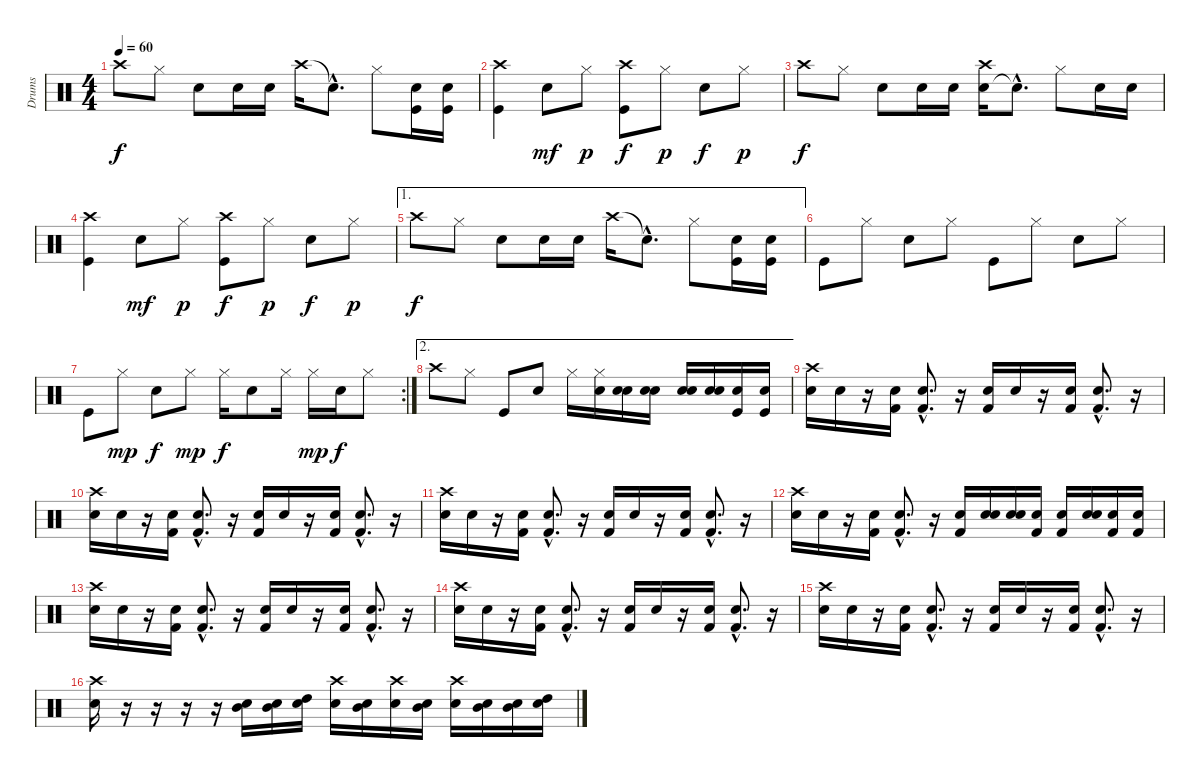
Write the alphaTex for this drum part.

\track ("Drums" "Drums") {instrument percussion}
\staff {score}
\articulation defaults
\ts (4 4)
\tempo 60
\clef neutral
\ks c "Crash high (hit)".8{dy f} "Hi-Hat (closed)".8 "Snare (hit) 2".8 "Snare (hit) 2".16 "Snare (hit) 2".16 "Crash high (hit)".16 "Snare (hit) 2"{hac t}.8{d} "Hi-Hat (closed)".8
("Kick (hit)" "Snare (hit) 2").16 ("Kick (hit)" "Snare (hit) 2").16 |
("Crash high (hit)" "Kick (hit)").4 "Snare (hit) 2".8{dy mf} "Hi-Hat (closed)".8{dy p} ("Crash high (hit)" "Kick (hit)").8{dy f} "Hi-Hat (closed)".8{dy p} "Snare (hit) 2".8{dy f} "Hi-Hat (closed)".8{dy p} |
"Crash high (hit)".8{dy f} "Hi-Hat (closed)".8 "Snare (hit) 2".8 "Snare (hit) 2".16 "Snare (hit) 2".16 ("Snare (hit) 2" "Crash high (hit)").16 "Snare (hit) 2"{hac t}.8{d} "Hi-Hat (closed)".8 "Snare (hit) 2".16 "Snare (hit) 2".16 |
("Crash high (hit)" "Kick (hit)").4 "Snare (hit) 2".8{dy mf} "Hi-Hat (closed)".8{dy p} ("Crash high (hit)" "Kick (hit)").8{dy f} "Hi-Hat (closed)".8{dy p} "Snare (hit) 2".8{dy f} "Hi-Hat (closed)".8{dy p} |
\ae 1 "Crash high (hit)".8{dy f} "Hi-Hat (closed)".8 "Snare (hit) 2".8 "Snare (hit) 2".16 "Snare (hit) 2".16 "Crash high (hit)".16 "Snare (hit) 2"{hac t}.8{d} "Hi-Hat (closed)".8
("Kick (hit)" "Snare (hit) 2").16 ("Kick (hit)" "Snare (hit) 2").16 |
"Kick (hit)".8 "Hi-Hat (closed)".8 "Snare (hit) 2".8 "Hi-Hat (closed)".8 "Kick (hit)".8 "Hi-Hat (closed)".8 "Snare (hit) 2".8 "Hi-Hat (closed)".8 |
\rc 2 "Kick (hit)".8 "Hi-Hat (closed)".8{dy mp} "Snare (hit) 2".8{dy f} "Hi-Hat (closed)".8{dy mp} "Hi-Hat (closed)".16{dy f} "Snare (hit) 2".8 "Hi-Hat (closed)".16 "Hi-Hat (closed)".16{dy mp} "Snare (hit) 2".16{dy f} "Hi-Hat (closed)".8
|
\ae 2 "Crash high (hit)".8 "Hi-Hat (closed)".8 "Kick (hit)".8 "Snare (hit) 2".8 "Hi-Hat (closed)".16
("Hi-Hat (closed)" "Snare (hit) 2").16 ("Snare (hit) 2" "Snare (hit) 2").16 ("Snare (hit) 2" "Snare (hit) 2").16 ("Snare (hit) 2" "Snare (hit) 2").16 ("Snare (hit) 2" "Snare (hit) 2").16 ("Kick (hit)" "Snare (hit) 2").16 ("Kick (hit)" "Snare (hit) 2").16 |
("Snare (hit) 2" "Crash high (hit)").16 "Snare (hit) 2".16 r.16 ("Snare (hit) 2" "Kick (hit) 2").16 ("Snare (hit) 2"{hac} "Kick (hit) 2"{hac}).8{d} r.16 ("Snare (hit) 2" "Kick (hit) 2").16 "Snare (hit) 2".16 r.16 ("Snare (hit) 2" "Kick (hit) 2").16 ("Snare (hit) 2"{hac} "Kick (hit) 2"{hac}).8{d} r.16 |
("Snare (hit) 2" "Crash high (hit)").16 "Snare (hit) 2".16 r.16 ("Snare (hit) 2" "Kick (hit) 2").16 ("Snare (hit) 2"{hac} "Kick (hit) 2"{hac}).8{d} r.16 ("Snare (hit) 2" "Kick (hit) 2").16 "Snare (hit) 2".16 r.16 ("Snare (hit) 2" "Kick (hit) 2").16 ("Snare (hit) 2"{hac} "Kick (hit) 2"{hac}).8{d} r.16 |
("Snare (hit) 2" "Crash high (hit)").16 "Snare (hit) 2".16 r.16 ("Snare (hit) 2" "Kick (hit) 2").16 ("Snare (hit) 2"{hac} "Kick (hit) 2"{hac}).8{d} r.16 ("Snare (hit) 2" "Kick (hit) 2").16 "Snare (hit) 2".16 r.16 ("Snare (hit) 2" "Kick (hit) 2").16 ("Snare (hit) 2"{hac} "Kick (hit) 2"{hac}).8{d} r.16 |
("Snare (hit) 2" "Crash high (hit)").16 "Snare (hit) 2".16 r.16 ("Snare (hit) 2" "Kick (hit) 2").16 ("Snare (hit) 2"{hac} "Kick (hit) 2"{hac}).8{d} r.16 ("Snare (hit) 2" "Kick (hit) 2").16 ("Snare (hit) 2" "Snare (hit) 2").16 ("Snare (hit) 2" "Snare (hit) 2").16 ("Snare (hit) 2" "Kick (hit) 2").16 ("Snare (hit) 2" "Kick (hit) 2").16 ("Snare (hit) 2" "Snare (hit) 2").16 ("Snare (hit) 2" "Kick (hit) 2").16 ("Snare (hit) 2" "Kick (hit) 2").16 |
("Snare (hit) 2" "Crash high (hit)").16 "Snare (hit) 2".16 r.16 ("Snare (hit) 2" "Kick (hit) 2").16 ("Snare (hit) 2"{hac} "Kick (hit) 2"{hac}).8{d} r.16 ("Snare (hit) 2" "Kick (hit) 2").16 "Snare (hit) 2".16 r.16 ("Snare (hit) 2" "Kick (hit) 2").16 ("Snare (hit) 2"{hac} "Kick (hit) 2"{hac}).8{d} r.16 |
("Snare (hit) 2" "Crash high (hit)").16 "Snare (hit) 2".16 r.16 ("Snare (hit) 2" "Kick (hit) 2").16 ("Snare (hit) 2"{hac} "Kick (hit) 2"{hac}).8{d} r.16 ("Snare (hit) 2" "Kick (hit) 2").16 "Snare (hit) 2".16 r.16 ("Snare (hit) 2" "Kick (hit) 2").16 ("Snare (hit) 2"{hac} "Kick (hit) 2"{hac}).8{d} r.16 |
("Snare (hit) 2" "Crash high (hit)").16 "Snare (hit) 2".16 r.16 ("Snare (hit) 2" "Kick (hit) 2").16 ("Snare (hit) 2"{hac} "Kick (hit) 2"{hac}).8{d} r.16 ("Snare (hit) 2" "Kick (hit) 2").16 "Snare (hit) 2".16 r.16 ("Snare (hit) 2" "Kick (hit) 2").16 ("Snare (hit) 2"{hac} "Kick (hit) 2"{hac}).8{d} r.16 |
("Crash high (hit)" "Snare (hit) 2").16 r.16 r.16 r.16 r.16 ("Mid Tom (hit)" "Snare (hit) 2").16 ("Mid Tom (hit)" "Snare (hit) 2").16 ("High Tom (hit)" "Snare (hit) 2").16 ("Crash high (hit)" "Snare (hit) 2").16 ("Mid Tom (hit)" "Snare (hit) 2").16 ("Crash high (hit)" "Snare (hit) 2").16 ("Mid Tom (hit)" "Snare (hit) 2").16 ("Crash high (hit)" "Snare (hit) 2").16 ("Mid Tom (hit)" "Snare (hit) 2").16 ("Mid Tom (hit)" "Snare (hit) 2").16 ("High Tom (hit)" "Snare (hit) 2").16
